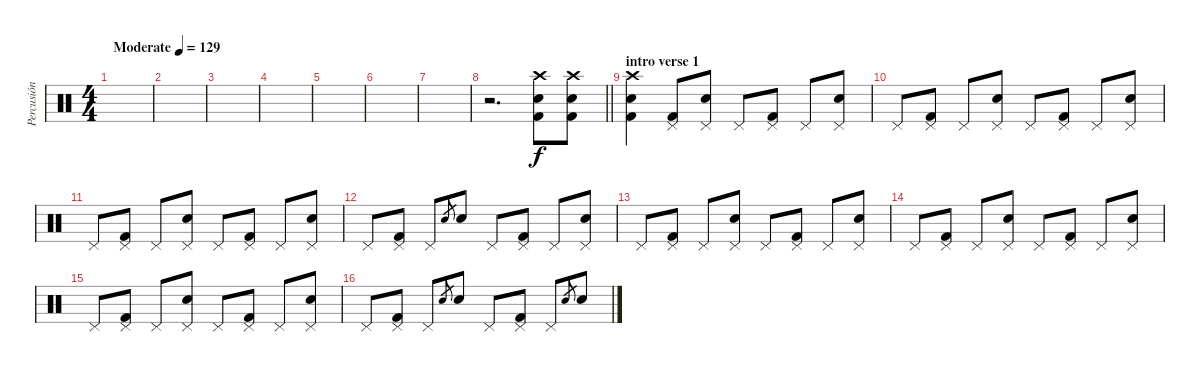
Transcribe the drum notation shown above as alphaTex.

\track ("Percusión" "Percusión") {instrument percussion}
\staff {score}
\articulation defaults
\ts (4 4)
\tempo (129 "Moderate")
\clef neutral
\ks c
|
|
|
|
|
|
|
\barLineRight lightlight
r.2{d} ("Crash high (hit)" "Electric Snare (hit)" "Kick (hit) 2").8 ("Crash high (hit)" "Electric Snare (hit)" "Kick (hit) 2").8 |
\section ("" "intro verse 1")
("Crash high (hit)" "Electric Snare (hit)" "Kick (hit) 2").4{dy f} ("Pedal Hi-Hat (hit)" "Kick (hit) 2").8 ("Electric Snare (hit)" "Pedal Hi-Hat (hit)").8 "Pedal Hi-Hat (hit)".8 ("Pedal Hi-Hat (hit)" "Kick (hit) 2").8 "Pedal Hi-Hat (hit)".8 ("Electric Snare (hit)" "Pedal Hi-Hat (hit)").8 |
"Pedal Hi-Hat (hit)".8 ("Pedal Hi-Hat (hit)" "Kick (hit) 2").8 "Pedal Hi-Hat (hit)".8 ("Electric Snare (hit)" "Pedal Hi-Hat (hit)").8 "Pedal Hi-Hat (hit)".8 ("Pedal Hi-Hat (hit)" "Kick (hit) 2").8 "Pedal Hi-Hat (hit)".8 ("Electric Snare (hit)" "Pedal Hi-Hat (hit)").8 |
"Pedal Hi-Hat (hit)".8 ("Pedal Hi-Hat (hit)" "Kick (hit) 2").8 "Pedal Hi-Hat (hit)".8 ("Electric Snare (hit)" "Pedal Hi-Hat (hit)").8 "Pedal Hi-Hat (hit)".8 ("Pedal Hi-Hat (hit)" "Kick (hit) 2").8 "Pedal Hi-Hat (hit)".8 ("Electric Snare (hit)" "Pedal Hi-Hat (hit)").8 |
"Pedal Hi-Hat (hit)".8 ("Pedal Hi-Hat (hit)" "Kick (hit) 2").8 "Pedal Hi-Hat (hit)".8 "Snare (hit) 2".8{gr} "Electric Snare (hit)".8 "Pedal Hi-Hat (hit)".8 ("Pedal Hi-Hat (hit)" "Kick (hit) 2").8 "Pedal Hi-Hat (hit)".8 ("Electric Snare (hit)" "Pedal Hi-Hat (hit)").8 |
"Pedal Hi-Hat (hit)".8 ("Pedal Hi-Hat (hit)" "Kick (hit) 2").8 "Pedal Hi-Hat (hit)".8 ("Electric Snare (hit)" "Pedal Hi-Hat (hit)").8 "Pedal Hi-Hat (hit)".8 ("Pedal Hi-Hat (hit)" "Kick (hit) 2").8 "Pedal Hi-Hat (hit)".8 ("Electric Snare (hit)" "Pedal Hi-Hat (hit)").8 |
"Pedal Hi-Hat (hit)".8 ("Pedal Hi-Hat (hit)" "Kick (hit) 2").8 "Pedal Hi-Hat (hit)".8 ("Electric Snare (hit)" "Pedal Hi-Hat (hit)").8 "Pedal Hi-Hat (hit)".8 ("Pedal Hi-Hat (hit)" "Kick (hit) 2").8 "Pedal Hi-Hat (hit)".8 ("Electric Snare (hit)" "Pedal Hi-Hat (hit)").8 |
"Pedal Hi-Hat (hit)".8 ("Pedal Hi-Hat (hit)" "Kick (hit) 2").8 "Pedal Hi-Hat (hit)".8 ("Electric Snare (hit)" "Pedal Hi-Hat (hit)").8 "Pedal Hi-Hat (hit)".8 ("Pedal Hi-Hat (hit)" "Kick (hit) 2").8 "Pedal Hi-Hat (hit)".8 ("Electric Snare (hit)" "Pedal Hi-Hat (hit)").8 |
"Pedal Hi-Hat (hit)".8 ("Pedal Hi-Hat (hit)" "Kick (hit) 2").8 "Pedal Hi-Hat (hit)".8 "Snare (hit) 2".8{gr} "Electric Snare (hit)".8 "Pedal Hi-Hat (hit)".8 ("Pedal Hi-Hat (hit)" "Kick (hit) 2").8 "Pedal Hi-Hat (hit)".8 "Snare (hit) 2".8{gr} "Electric Snare (hit)".8
